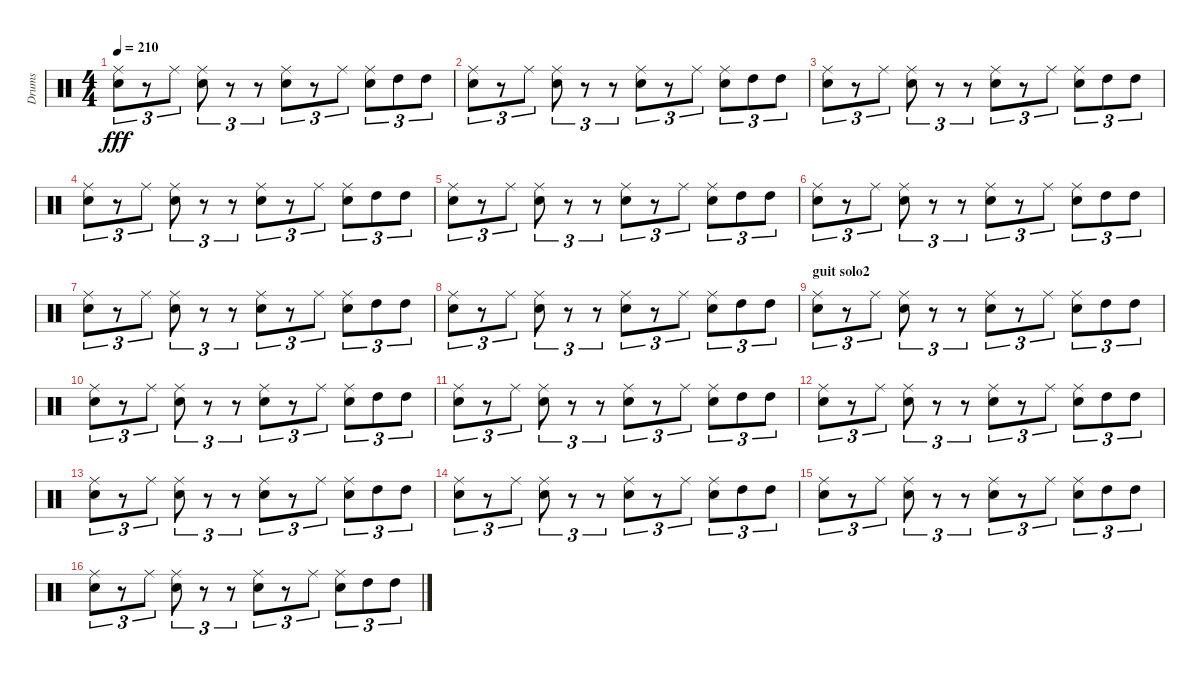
\track ("Drums" "Drums") {instrument percussion}
\staff {score}
\articulation defaults
\ts (4 4)
\tempo 210
\clef neutral
\ks c
("Electric Snare (hit)" "Ride (middle)").8{tu (3 2) dy fff} r.8{tu (3 2)} "Ride (middle)".8{tu (3 2)} ("Electric Snare (hit)" "Ride (middle)").8{tu (3 2)} r.8{tu (3 2)} r.8{tu (3 2)} ("Electric Snare (hit)" "Ride (middle)").8{tu (3 2)} r.8{tu (3 2)} "Ride (middle)".8{tu (3 2)} ("Electric Snare (hit)" "Ride (middle)").8{tu (3 2)} "High Tom (hit)".8{tu (3 2)} "High Tom (hit)".8{tu (3 2)} |
("Electric Snare (hit)" "Ride (middle)").8{tu (3 2)} r.8{tu (3 2)} "Ride (middle)".8{tu (3 2)} ("Electric Snare (hit)" "Ride (middle)").8{tu (3 2)} r.8{tu (3 2)} r.8{tu (3 2)} ("Electric Snare (hit)" "Ride (middle)").8{tu (3 2)} r.8{tu (3 2)} "Ride (middle)".8{tu (3 2)} ("Electric Snare (hit)" "Ride (middle)").8{tu (3 2)} "High Tom (hit)".8{tu (3 2)} "High Tom (hit)".8{tu (3 2)} |
("Electric Snare (hit)" "Ride (middle)").8{tu (3 2)} r.8{tu (3 2)} "Ride (middle)".8{tu (3 2)} ("Electric Snare (hit)" "Ride (middle)").8{tu (3 2)} r.8{tu (3 2)} r.8{tu (3 2)} ("Electric Snare (hit)" "Ride (middle)").8{tu (3 2)} r.8{tu (3 2)} "Ride (middle)".8{tu (3 2)} ("Electric Snare (hit)" "Ride (middle)").8{tu (3 2)} "High Tom (hit)".8{tu (3 2)} "High Tom (hit)".8{tu (3 2)} |
("Electric Snare (hit)" "Ride (middle)").8{tu (3 2)} r.8{tu (3 2)} "Ride (middle)".8{tu (3 2)} ("Electric Snare (hit)" "Ride (middle)").8{tu (3 2)} r.8{tu (3 2)} r.8{tu (3 2)} ("Electric Snare (hit)" "Ride (middle)").8{tu (3 2)} r.8{tu (3 2)} "Ride (middle)".8{tu (3 2)} ("Electric Snare (hit)" "Ride (middle)").8{tu (3 2)} "High Tom (hit)".8{tu (3 2)} "High Tom (hit)".8{tu (3 2)} |
("Electric Snare (hit)" "Ride (middle)").8{tu (3 2)} r.8{tu (3 2)} "Ride (middle)".8{tu (3 2)} ("Electric Snare (hit)" "Ride (middle)").8{tu (3 2)} r.8{tu (3 2)} r.8{tu (3 2)} ("Electric Snare (hit)" "Ride (middle)").8{tu (3 2)} r.8{tu (3 2)} "Ride (middle)".8{tu (3 2)} ("Electric Snare (hit)" "Ride (middle)").8{tu (3 2)} "High Tom (hit)".8{tu (3 2)} "High Tom (hit)".8{tu (3 2)} |
("Electric Snare (hit)" "Ride (middle)").8{tu (3 2)} r.8{tu (3 2)} "Ride (middle)".8{tu (3 2)} ("Electric Snare (hit)" "Ride (middle)").8{tu (3 2)} r.8{tu (3 2)} r.8{tu (3 2)} ("Electric Snare (hit)" "Ride (middle)").8{tu (3 2)} r.8{tu (3 2)} "Ride (middle)".8{tu (3 2)} ("Electric Snare (hit)" "Ride (middle)").8{tu (3 2)} "High Tom (hit)".8{tu (3 2)} "High Tom (hit)".8{tu (3 2)} |
("Electric Snare (hit)" "Ride (middle)").8{tu (3 2)} r.8{tu (3 2)} "Ride (middle)".8{tu (3 2)} ("Electric Snare (hit)" "Ride (middle)").8{tu (3 2)} r.8{tu (3 2)} r.8{tu (3 2)} ("Electric Snare (hit)" "Ride (middle)").8{tu (3 2)} r.8{tu (3 2)} "Ride (middle)".8{tu (3 2)} ("Electric Snare (hit)" "Ride (middle)").8{tu (3 2)} "High Tom (hit)".8{tu (3 2)} "High Tom (hit)".8{tu (3 2)} |
("Electric Snare (hit)" "Ride (middle)").8{tu (3 2)} r.8{tu (3 2)} "Ride (middle)".8{tu (3 2)} ("Electric Snare (hit)" "Ride (middle)").8{tu (3 2)} r.8{tu (3 2)} r.8{tu (3 2)} ("Electric Snare (hit)" "Ride (middle)").8{tu (3 2)} r.8{tu (3 2)} "Ride (middle)".8{tu (3 2)} ("Electric Snare (hit)" "Ride (middle)").8{tu (3 2)} "High Tom (hit)".8{tu (3 2)} "High Tom (hit)".8{tu (3 2)} |
\section ("" "guit solo2")
("Electric Snare (hit)" "Ride (middle)").8{tu (3 2)} r.8{tu (3 2)} "Ride (middle)".8{tu (3 2)} ("Electric Snare (hit)" "Ride (middle)").8{tu (3 2)} r.8{tu (3 2)} r.8{tu (3 2)} ("Electric Snare (hit)" "Ride (middle)").8{tu (3 2)} r.8{tu (3 2)} "Ride (middle)".8{tu (3 2)} ("Electric Snare (hit)" "Ride (middle)").8{tu (3 2)} "High Tom (hit)".8{tu (3 2)} "High Tom (hit)".8{tu (3 2)} |
("Electric Snare (hit)" "Ride (middle)").8{tu (3 2)} r.8{tu (3 2)} "Ride (middle)".8{tu (3 2)} ("Electric Snare (hit)" "Ride (middle)").8{tu (3 2)} r.8{tu (3 2)} r.8{tu (3 2)} ("Electric Snare (hit)" "Ride (middle)").8{tu (3 2)} r.8{tu (3 2)} "Ride (middle)".8{tu (3 2)} ("Electric Snare (hit)" "Ride (middle)").8{tu (3 2)} "High Tom (hit)".8{tu (3 2)} "High Tom (hit)".8{tu (3 2)} |
("Electric Snare (hit)" "Ride (middle)").8{tu (3 2)} r.8{tu (3 2)} "Ride (middle)".8{tu (3 2)} ("Electric Snare (hit)" "Ride (middle)").8{tu (3 2)} r.8{tu (3 2)} r.8{tu (3 2)} ("Electric Snare (hit)" "Ride (middle)").8{tu (3 2)} r.8{tu (3 2)} "Ride (middle)".8{tu (3 2)} ("Electric Snare (hit)" "Ride (middle)").8{tu (3 2)} "High Tom (hit)".8{tu (3 2)} "High Tom (hit)".8{tu (3 2)} |
("Electric Snare (hit)" "Ride (middle)").8{tu (3 2)} r.8{tu (3 2)} "Ride (middle)".8{tu (3 2)} ("Electric Snare (hit)" "Ride (middle)").8{tu (3 2)} r.8{tu (3 2)} r.8{tu (3 2)} ("Electric Snare (hit)" "Ride (middle)").8{tu (3 2)} r.8{tu (3 2)} "Ride (middle)".8{tu (3 2)} ("Electric Snare (hit)" "Ride (middle)").8{tu (3 2)} "High Tom (hit)".8{tu (3 2)} "High Tom (hit)".8{tu (3 2)} |
("Electric Snare (hit)" "Ride (middle)").8{tu (3 2)} r.8{tu (3 2)} "Ride (middle)".8{tu (3 2)} ("Electric Snare (hit)" "Ride (middle)").8{tu (3 2)} r.8{tu (3 2)} r.8{tu (3 2)} ("Electric Snare (hit)" "Ride (middle)").8{tu (3 2)} r.8{tu (3 2)} "Ride (middle)".8{tu (3 2)} ("Electric Snare (hit)" "Ride (middle)").8{tu (3 2)} "High Tom (hit)".8{tu (3 2)} "High Tom (hit)".8{tu (3 2)} |
("Electric Snare (hit)" "Ride (middle)").8{tu (3 2)} r.8{tu (3 2)} "Ride (middle)".8{tu (3 2)} ("Electric Snare (hit)" "Ride (middle)").8{tu (3 2)} r.8{tu (3 2)} r.8{tu (3 2)} ("Electric Snare (hit)" "Ride (middle)").8{tu (3 2)} r.8{tu (3 2)} "Ride (middle)".8{tu (3 2)} ("Electric Snare (hit)" "Ride (middle)").8{tu (3 2)} "High Tom (hit)".8{tu (3 2)} "High Tom (hit)".8{tu (3 2)} |
("Electric Snare (hit)" "Ride (middle)").8{tu (3 2)} r.8{tu (3 2)} "Ride (middle)".8{tu (3 2)} ("Electric Snare (hit)" "Ride (middle)").8{tu (3 2)} r.8{tu (3 2)} r.8{tu (3 2)} ("Electric Snare (hit)" "Ride (middle)").8{tu (3 2)} r.8{tu (3 2)} "Ride (middle)".8{tu (3 2)} ("Electric Snare (hit)" "Ride (middle)").8{tu (3 2)} "High Tom (hit)".8{tu (3 2)} "High Tom (hit)".8{tu (3 2)} |
("Electric Snare (hit)" "Ride (middle)").8{tu (3 2)} r.8{tu (3 2)} "Ride (middle)".8{tu (3 2)} ("Electric Snare (hit)" "Ride (middle)").8{tu (3 2)} r.8{tu (3 2)} r.8{tu (3 2)} ("Electric Snare (hit)" "Ride (middle)").8{tu (3 2)} r.8{tu (3 2)} "Ride (middle)".8{tu (3 2)} ("Electric Snare (hit)" "Ride (middle)").8{tu (3 2)} "High Tom (hit)".8{tu (3 2)} "High Tom (hit)".8{tu (3 2)}
